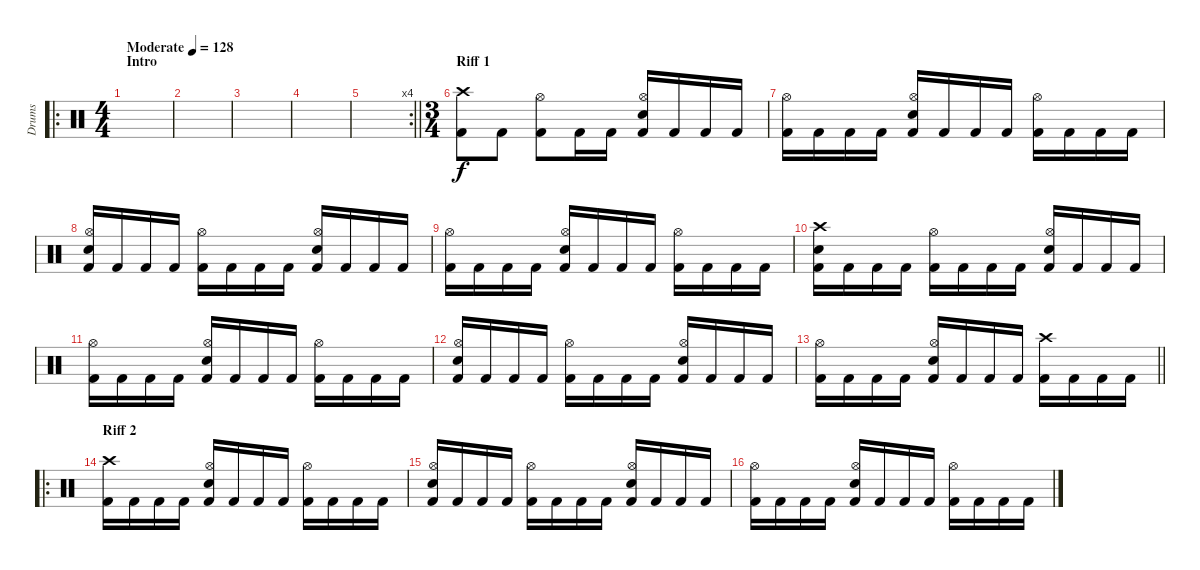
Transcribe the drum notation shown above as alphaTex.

\track ("Drums" "Drums") {instrument percussion}
\staff {score}
\articulation defaults
\ro
\ts (4 4)
\section ("" "Intro")
\tempo (128 "Moderate")
\clef neutral
\ks c
|
|
|
|
\rc 4
\barLineRight lightlight
|
\ts (3 4)
\section ("" "Riff 1")
("Crash high (hit)" "Kick (hit) 2").8 "Kick (hit) 2".8 ("Hi-Hat (open)" "Kick (hit) 2").8 "Kick (hit) 2".16 "Kick (hit) 2".16 ("Hi-Hat (open)" "Electric Snare (hit)" "Kick (hit) 2").16 "Kick (hit) 2".16 "Kick (hit) 2".16 "Kick (hit) 2".16 |
("Hi-Hat (open)" "Kick (hit) 2").16 "Kick (hit) 2".16 "Kick (hit) 2".16 "Kick (hit) 2".16 ("Hi-Hat (open)" "Electric Snare (hit)" "Kick (hit) 2").16 "Kick (hit) 2".16 "Kick (hit) 2".16 "Kick (hit) 2".16 ("Hi-Hat (open)" "Kick (hit) 2").16 "Kick (hit) 2".16 "Kick (hit) 2".16 "Kick (hit) 2".16 |
("Hi-Hat (open)" "Electric Snare (hit)" "Kick (hit) 2").16 "Kick (hit) 2".16 "Kick (hit) 2".16 "Kick (hit) 2".16 ("Hi-Hat (open)" "Kick (hit) 2").16 "Kick (hit) 2".16 "Kick (hit) 2".16 "Kick (hit) 2".16 ("Hi-Hat (open)" "Electric Snare (hit)" "Kick (hit) 2").16 "Kick (hit) 2".16 "Kick (hit) 2".16 "Kick (hit) 2".16 |
("Hi-Hat (open)" "Kick (hit) 2").16 "Kick (hit) 2".16 "Kick (hit) 2".16 "Kick (hit) 2".16 ("Hi-Hat (open)" "Electric Snare (hit)" "Kick (hit) 2").16 "Kick (hit) 2".16 "Kick (hit) 2".16 "Kick (hit) 2".16 ("Hi-Hat (open)" "Kick (hit) 2").16 "Kick (hit) 2".16 "Kick (hit) 2".16 "Kick (hit) 2".16 |
("Crash high (hit)" "Electric Snare (hit)" "Kick (hit) 2").16 "Kick (hit) 2".16 "Kick (hit) 2".16 "Kick (hit) 2".16 ("Hi-Hat (open)" "Kick (hit) 2").16 "Kick (hit) 2".16 "Kick (hit) 2".16 "Kick (hit) 2".16 ("Hi-Hat (open)" "Electric Snare (hit)" "Kick (hit) 2").16 "Kick (hit) 2".16 "Kick (hit) 2".16 "Kick (hit) 2".16 |
("Hi-Hat (open)" "Kick (hit) 2").16 "Kick (hit) 2".16 "Kick (hit) 2".16 "Kick (hit) 2".16 ("Hi-Hat (open)" "Electric Snare (hit)" "Kick (hit) 2").16 "Kick (hit) 2".16 "Kick (hit) 2".16 "Kick (hit) 2".16 ("Hi-Hat (open)" "Kick (hit) 2").16 "Kick (hit) 2".16 "Kick (hit) 2".16 "Kick (hit) 2".16 |
("Hi-Hat (open)" "Electric Snare (hit)" "Kick (hit) 2").16 "Kick (hit) 2".16 "Kick (hit) 2".16 "Kick (hit) 2".16 ("Hi-Hat (open)" "Kick (hit) 2").16 "Kick (hit) 2".16 "Kick (hit) 2".16 "Kick (hit) 2".16 ("Hi-Hat (open)" "Electric Snare (hit)" "Kick (hit) 2").16 "Kick (hit) 2".16 "Kick (hit) 2".16 "Kick (hit) 2".16 |
\barLineRight lightlight
("Hi-Hat (open)" "Kick (hit) 2").16 "Kick (hit) 2".16 "Kick (hit) 2".16 "Kick (hit) 2".16 ("Hi-Hat (open)" "Electric Snare (hit)" "Kick (hit) 2").16 "Kick (hit) 2".16 "Kick (hit) 2".16 "Kick (hit) 2".16 ("Crash high (hit)" "Kick (hit) 2").16 "Kick (hit) 2".16 "Kick (hit) 2".16 "Kick (hit) 2".16 |
\ro
\section ("" "Riff 2")
("Crash high (hit)" "Kick (hit) 2").16 "Kick (hit) 2".16 "Kick (hit) 2".16 "Kick (hit) 2".16 ("Hi-Hat (open)" "Electric Snare (hit)" "Kick (hit) 2").16 "Kick (hit) 2".16 "Kick (hit) 2".16 "Kick (hit) 2".16 ("Hi-Hat (open)" "Kick (hit) 2").16 "Kick (hit) 2".16 "Kick (hit) 2".16 "Kick (hit) 2".16 |
("Hi-Hat (open)" "Electric Snare (hit)" "Kick (hit) 2").16 "Kick (hit) 2".16 "Kick (hit) 2".16 "Kick (hit) 2".16 ("Hi-Hat (open)" "Kick (hit) 2").16 "Kick (hit) 2".16 "Kick (hit) 2".16 "Kick (hit) 2".16 ("Hi-Hat (open)" "Electric Snare (hit)" "Kick (hit) 2").16 "Kick (hit) 2".16 "Kick (hit) 2".16 "Kick (hit) 2".16 |
("Hi-Hat (open)" "Kick (hit) 2").16 "Kick (hit) 2".16 "Kick (hit) 2".16 "Kick (hit) 2".16 ("Hi-Hat (open)" "Electric Snare (hit)" "Kick (hit) 2").16 "Kick (hit) 2".16 "Kick (hit) 2".16 "Kick (hit) 2".16 ("Hi-Hat (open)" "Kick (hit) 2").16 "Kick (hit) 2".16 "Kick (hit) 2".16 "Kick (hit) 2".16
